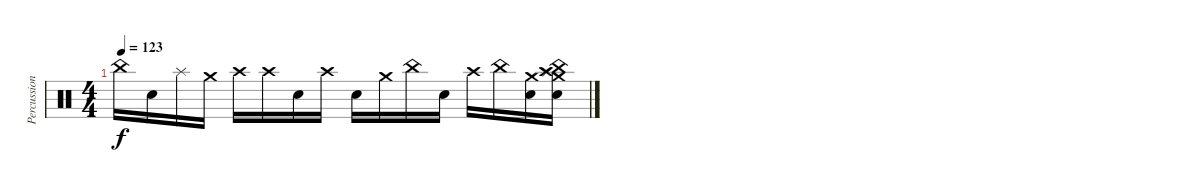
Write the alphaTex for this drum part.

\track ("Percussion" "Percussion") {instrument percussion}
\staff {score}
\articulation defaults
\ts (4 4)
\tempo 123
\clef neutral
\ks c "China (hit)".16{dy f} "Snare (hit) 2".16 "Splash (hit)".16 "Crash medium (hit)".16 "Crash high (hit)".16 "Crash high (hit)".16 "Snare (hit) 2".16 "Crash high (hit)".16 "Snare (hit) 2".16 "Crash medium (hit)".16 "China (hit)".16 "Snare (hit) 2".16 "Crash high (hit)".16 "China (hit)".16
("Snare (hit) 2" "Crash medium (hit)").16 ("Snare (hit) 2" "Crash medium (hit)" "Splash (hit)" "China (hit)" "Crash high (hit)").16
